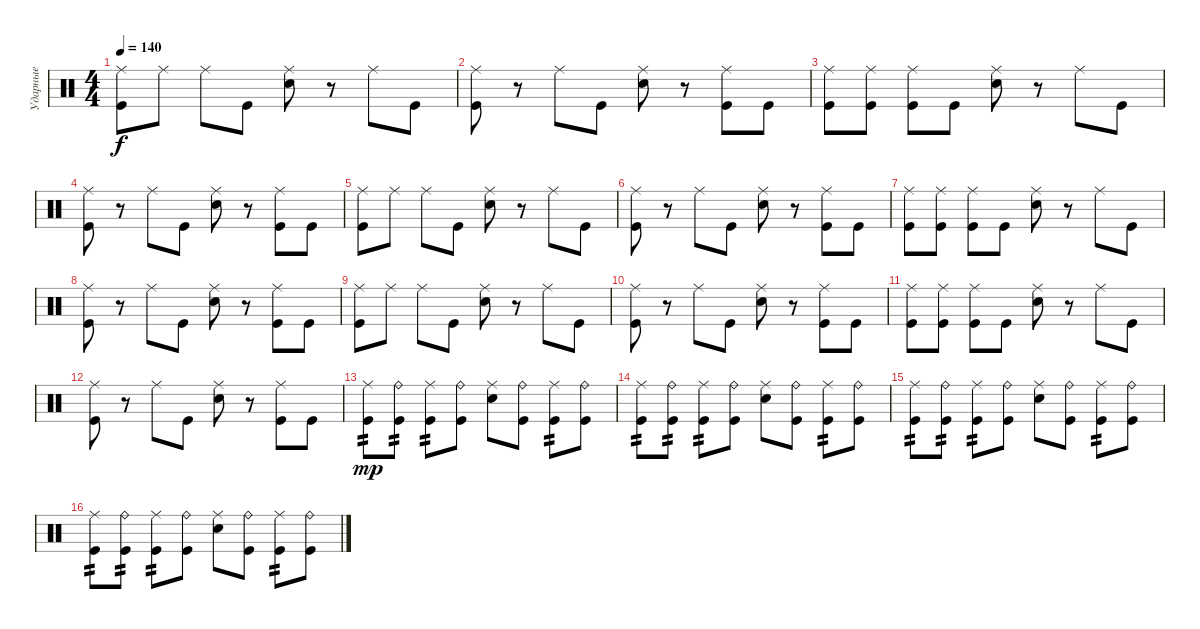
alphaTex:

\track ("Ударные" "Ударные") {instrument percussion}
\staff {score}
\articulation defaults
\ts (4 4)
\tempo 140
\clef neutral
\ks c
("Ride (middle)" "Kick (hit)").8{dy f} "Ride (middle)".8 "Ride (middle)".8 "Kick (hit)".8 ("Ride (middle)" "Electric Snare (hit)").8 r.8 "Ride (middle)".8 "Kick (hit)".8 |
("Ride (middle)" "Kick (hit)").8 r.8 "Ride (middle)".8 "Kick (hit)".8 ("Ride (middle)" "Electric Snare (hit)").8 r.8 ("Ride (middle)" "Kick (hit)").8 "Kick (hit)".8 |
("Ride (middle)" "Kick (hit)").8 ("Ride (middle)" "Kick (hit)").8 ("Ride (middle)" "Kick (hit)").8 "Kick (hit)".8 ("Ride (middle)" "Electric Snare (hit)").8 r.8 "Ride (middle)".8 "Kick (hit)".8 |
("Ride (middle)" "Kick (hit)").8 r.8 "Ride (middle)".8 "Kick (hit)".8 ("Ride (middle)" "Electric Snare (hit)").8 r.8 ("Ride (middle)" "Kick (hit)").8 "Kick (hit)".8 |
("Ride (middle)" "Kick (hit)").8 "Ride (middle)".8 "Ride (middle)".8 "Kick (hit)".8 ("Ride (middle)" "Electric Snare (hit)").8 r.8 "Ride (middle)".8 "Kick (hit)".8 |
("Ride (middle)" "Kick (hit)").8 r.8 "Ride (middle)".8 "Kick (hit)".8 ("Ride (middle)" "Electric Snare (hit)").8 r.8 ("Ride (middle)" "Kick (hit)").8 "Kick (hit)".8 |
("Ride (middle)" "Kick (hit)").8 ("Ride (middle)" "Kick (hit)").8 ("Ride (middle)" "Kick (hit)").8 "Kick (hit)".8 ("Ride (middle)" "Electric Snare (hit)").8 r.8 "Ride (middle)".8 "Kick (hit)".8 |
("Ride (middle)" "Kick (hit)").8 r.8 "Ride (middle)".8 "Kick (hit)".8 ("Ride (middle)" "Electric Snare (hit)").8 r.8 ("Ride (middle)" "Kick (hit)").8 "Kick (hit)".8 |
("Ride (middle)" "Kick (hit)").8 "Ride (middle)".8 "Ride (middle)".8 "Kick (hit)".8 ("Ride (middle)" "Electric Snare (hit)").8 r.8 "Ride (middle)".8 "Kick (hit)".8 |
("Ride (middle)" "Kick (hit)").8 r.8 "Ride (middle)".8 "Kick (hit)".8 ("Ride (middle)" "Electric Snare (hit)").8 r.8 ("Ride (middle)" "Kick (hit)").8 "Kick (hit)".8 |
("Ride (middle)" "Kick (hit)").8 ("Ride (middle)" "Kick (hit)").8 ("Ride (middle)" "Kick (hit)").8 "Kick (hit)".8 ("Ride (middle)" "Electric Snare (hit)").8 r.8 "Ride (middle)".8 "Kick (hit)".8 |
("Ride (middle)" "Kick (hit)").8 r.8 "Ride (middle)".8 "Kick (hit)".8 ("Ride (middle)" "Electric Snare (hit)").8 r.8 ("Ride (middle)" "Kick (hit)").8 "Kick (hit)".8 |
("Ride (middle)" "Kick (hit)").8{tp 2 dy mp} ("Ride (bell)" "Kick (hit)").8{tp 2} ("Ride (middle)" "Kick (hit)").8{tp 2} ("Ride (bell)" "Kick (hit)").8 ("Ride (middle)" "Electric Snare (hit)").8 ("Ride (bell)" "Kick (hit)").8 ("Ride (middle)" "Kick (hit)").8{tp 2} ("Ride (bell)" "Kick (hit)").8 |
("Ride (middle)" "Kick (hit)").8{tp 2} ("Ride (bell)" "Kick (hit)").8{tp 2} ("Ride (middle)" "Kick (hit)").8{tp 2} ("Ride (bell)" "Kick (hit)").8 ("Ride (middle)" "Electric Snare (hit)").8 ("Ride (bell)" "Kick (hit)").8 ("Ride (middle)" "Kick (hit)").8{tp 2} ("Ride (bell)" "Kick (hit)").8 |
("Ride (middle)" "Kick (hit)").8{tp 2} ("Ride (bell)" "Kick (hit)").8{tp 2} ("Ride (middle)" "Kick (hit)").8{tp 2} ("Ride (bell)" "Kick (hit)").8 ("Ride (middle)" "Electric Snare (hit)").8 ("Ride (bell)" "Kick (hit)").8 ("Ride (middle)" "Kick (hit)").8{tp 2} ("Ride (bell)" "Kick (hit)").8 |
("Ride (middle)" "Kick (hit)").8{tp 2} ("Ride (bell)" "Kick (hit)").8{tp 2} ("Ride (middle)" "Kick (hit)").8{tp 2} ("Ride (bell)" "Kick (hit)").8 ("Ride (middle)" "Electric Snare (hit)").8 ("Ride (bell)" "Kick (hit)").8 ("Ride (middle)" "Kick (hit)").8{tp 2} ("Ride (bell)" "Kick (hit)").8
